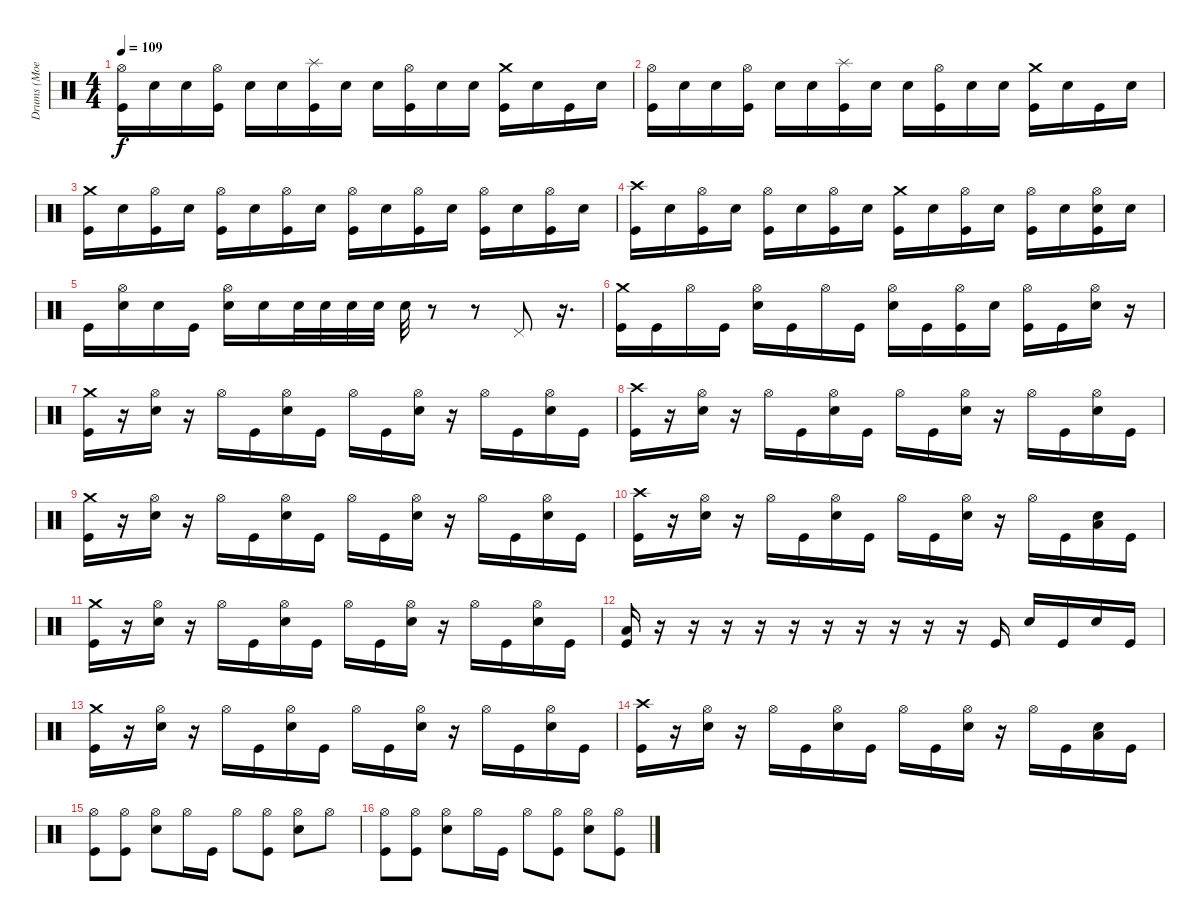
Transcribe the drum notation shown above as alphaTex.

\track ("Drums (Moe)" "Drums (Moe") {instrument percussion}
\staff {score}
\articulation defaults
\ts (4 4)
\tempo 109
\clef neutral
\ks c
("Kick (hit)" "Hi-Hat (open)").16{dy f} "Snare (hit) 2".16 "Snare (hit) 2".16 ("Kick (hit)" "Hi-Hat (open)").16 "Snare (hit) 2".16 "Snare (hit) 2".16 ("Kick (hit)" "Splash (hit)").16 "Snare (hit) 2".16 "Snare (hit) 2".16 ("Kick (hit)" "Hi-Hat (open)").16 "Snare (hit) 2".16 "Snare (hit) 2".16 ("Kick (hit)" "Crash medium (hit)").16 "Snare (hit) 2".16 "Kick (hit)".16 "Snare (hit) 2".16 |
("Kick (hit)" "Hi-Hat (open)").16 "Snare (hit) 2".16 "Snare (hit) 2".16 ("Kick (hit)" "Hi-Hat (open)").16 "Snare (hit) 2".16 "Snare (hit) 2".16 ("Kick (hit)" "Splash (hit)").16 "Snare (hit) 2".16 "Snare (hit) 2".16 ("Kick (hit)" "Hi-Hat (open)").16 "Snare (hit) 2".16 "Snare (hit) 2".16 ("Kick (hit)" "Crash medium (hit)").16 "Snare (hit) 2".16 "Kick (hit)".16 "Snare (hit) 2".16 |
("Kick (hit)" "Crash medium (hit)").16 "Snare (hit) 2".16 ("Kick (hit)" "Hi-Hat (open)").16 "Snare (hit) 2".16 ("Kick (hit)" "Hi-Hat (open)").16 "Snare (hit) 2".16 ("Kick (hit)" "Hi-Hat (open)").16 "Snare (hit) 2".16 ("Kick (hit)" "Hi-Hat (open)").16 "Snare (hit) 2".16 ("Kick (hit)" "Hi-Hat (open)").16 "Snare (hit) 2".16 ("Kick (hit)" "Hi-Hat (open)").16 "Snare (hit) 2".16 ("Kick (hit)" "Hi-Hat (open)").16 "Snare (hit) 2".16 |
("Kick (hit)" "Crash high (hit)").16 "Snare (hit) 2".16 ("Kick (hit)" "Hi-Hat (open)").16 "Snare (hit) 2".16 ("Kick (hit)" "Hi-Hat (open)").16 "Snare (hit) 2".16 ("Kick (hit)" "Hi-Hat (open)").16 "Snare (hit) 2".16 ("Kick (hit)" "Crash medium (hit)").16 "Snare (hit) 2".16 ("Kick (hit)" "Hi-Hat (open)").16 "Snare (hit) 2".16 ("Kick (hit)" "Hi-Hat (open)").16 "Snare (hit) 2".16 ("Kick (hit)" "Snare (hit) 2" "Hi-Hat (open)").16 "Snare (hit) 2".16 |
"Kick (hit)".16 ("Snare (hit) 2" "Hi-Hat (open)").16 "Snare (hit) 2".16 "Kick (hit)".16 ("Snare (hit) 2" "Hi-Hat (open)").16 "Snare (hit) 2".16 "Snare (hit) 2".32 "Snare (hit) 2".32 "Snare (hit) 2".32 "Snare (hit) 2".32 "Snare (hit) 2".32 r.8 r.8 "Pedal Hi-Hat (hit)".8 r.16{d} |
("Kick (hit)" "Crash medium (hit)").16 "Kick (hit)".16 "Hi-Hat (open)".16 "Kick (hit)".16 ("Snare (hit) 2" "Hi-Hat (open)").16 "Kick (hit)".16 "Hi-Hat (open)".16 "Kick (hit)".16 ("Snare (hit) 2" "Hi-Hat (open)").16 "Kick (hit)".16 ("Kick (hit)" "Hi-Hat (open)").16 "Snare (hit) 2".16 ("Kick (hit)" "Hi-Hat (open)").16 "Kick (hit)".16 ("Snare (hit) 2" "Hi-Hat (open)").16 r.16 |
("Kick (hit)" "Crash medium (hit)").16 r.16 ("Snare (hit) 2" "Hi-Hat (open)").16 r.16 "Hi-Hat (open)".16 "Kick (hit)".16 ("Snare (hit) 2" "Hi-Hat (open)").16 "Kick (hit)".16 "Hi-Hat (open)".16 "Kick (hit)".16 ("Snare (hit) 2" "Hi-Hat (open)").16 r.16 "Hi-Hat (open)".16 "Kick (hit)".16 ("Snare (hit) 2" "Hi-Hat (open)").16 "Kick (hit)".16 |
("Kick (hit)" "Crash high (hit)").16 r.16 ("Snare (hit) 2" "Hi-Hat (open)").16 r.16 "Hi-Hat (open)".16 "Kick (hit)".16 ("Snare (hit) 2" "Hi-Hat (open)").16 "Kick (hit)".16 "Hi-Hat (open)".16 "Kick (hit)".16 ("Snare (hit) 2" "Hi-Hat (open)").16 r.16 "Hi-Hat (open)".16 "Kick (hit)".16 ("Snare (hit) 2" "Hi-Hat (open)").16 "Kick (hit)".16 |
("Kick (hit)" "Crash medium (hit)").16 r.16 ("Snare (hit) 2" "Hi-Hat (open)").16 r.16 "Hi-Hat (open)".16 "Kick (hit)".16 ("Snare (hit) 2" "Hi-Hat (open)").16 "Kick (hit)".16 "Hi-Hat (open)".16 "Kick (hit)".16 ("Snare (hit) 2" "Hi-Hat (open)").16 r.16 "Hi-Hat (open)".16 "Kick (hit)".16 ("Snare (hit) 2" "Hi-Hat (open)").16 "Kick (hit)".16 |
("Kick (hit)" "Crash high (hit)").16 r.16 ("Snare (hit) 2" "Hi-Hat (open)").16 r.16 "Hi-Hat (open)".16 "Kick (hit)".16 ("Snare (hit) 2" "Hi-Hat (open)").16 "Kick (hit)".16 "Hi-Hat (open)".16 "Kick (hit)".16 ("Snare (hit) 2" "Hi-Hat (open)").16 r.16 "Hi-Hat (open)".16 "Kick (hit)".16 ("Snare (hit) 2" "Low Floor Tom (hit)").16 "Kick (hit)".16 |
("Kick (hit)" "Crash medium (hit)").16 r.16 ("Snare (hit) 2" "Hi-Hat (open)").16 r.16 "Hi-Hat (open)".16 "Kick (hit)".16 ("Snare (hit) 2" "Hi-Hat (open)").16 "Kick (hit)".16 "Hi-Hat (open)".16 "Kick (hit)".16 ("Snare (hit) 2" "Hi-Hat (open)").16 r.16 "Hi-Hat (open)".16 "Kick (hit)".16 ("Snare (hit) 2" "Hi-Hat (open)").16 "Kick (hit)".16 |
("Kick (hit)" "Low Floor Tom (hit)").16 r.16 r.16 r.16 r.16 r.16 r.16 r.16 r.16 r.16 r.16 "Kick (hit)".16 "Snare (hit) 2".16 "Kick (hit)".16 "Snare (hit) 2".16 "Kick (hit)".16 |
("Kick (hit)" "Crash medium (hit)").16 r.16 ("Snare (hit) 2" "Hi-Hat (open)").16 r.16 "Hi-Hat (open)".16 "Kick (hit)".16 ("Snare (hit) 2" "Hi-Hat (open)").16 "Kick (hit)".16 "Hi-Hat (open)".16 "Kick (hit)".16 ("Snare (hit) 2" "Hi-Hat (open)").16 r.16 "Hi-Hat (open)".16 "Kick (hit)".16 ("Snare (hit) 2" "Hi-Hat (open)").16 "Kick (hit)".16 |
("Kick (hit)" "Crash high (hit)").16 r.16 ("Snare (hit) 2" "Hi-Hat (open)").16 r.16 "Hi-Hat (open)".16 "Kick (hit)".16 ("Snare (hit) 2" "Hi-Hat (open)").16 "Kick (hit)".16 "Hi-Hat (open)".16 "Kick (hit)".16 ("Snare (hit) 2" "Hi-Hat (open)").16 r.16 "Hi-Hat (open)".16 "Kick (hit)".16 ("Snare (hit) 2" "Low Floor Tom (hit)").16 "Kick (hit)".16 |
("Kick (hit)" "Hi-Hat (open)").8 ("Kick (hit)" "Hi-Hat (open)").8 ("Snare (hit) 2" "Hi-Hat (open)").8 "Hi-Hat (open)".16 "Kick (hit)".16 "Hi-Hat (open)".8 ("Kick (hit)" "Hi-Hat (open)").8 ("Snare (hit) 2" "Hi-Hat (open)").8 "Hi-Hat (open)".8 |
("Kick (hit)" "Hi-Hat (open)").8 ("Kick (hit)" "Hi-Hat (open)").8 ("Snare (hit) 2" "Hi-Hat (open)").8 "Hi-Hat (open)".16 "Kick (hit)".16 "Hi-Hat (open)".8 ("Kick (hit)" "Hi-Hat (open)").8 ("Snare (hit) 2" "Hi-Hat (open)").8 ("Kick (hit)" "Hi-Hat (open)").8
